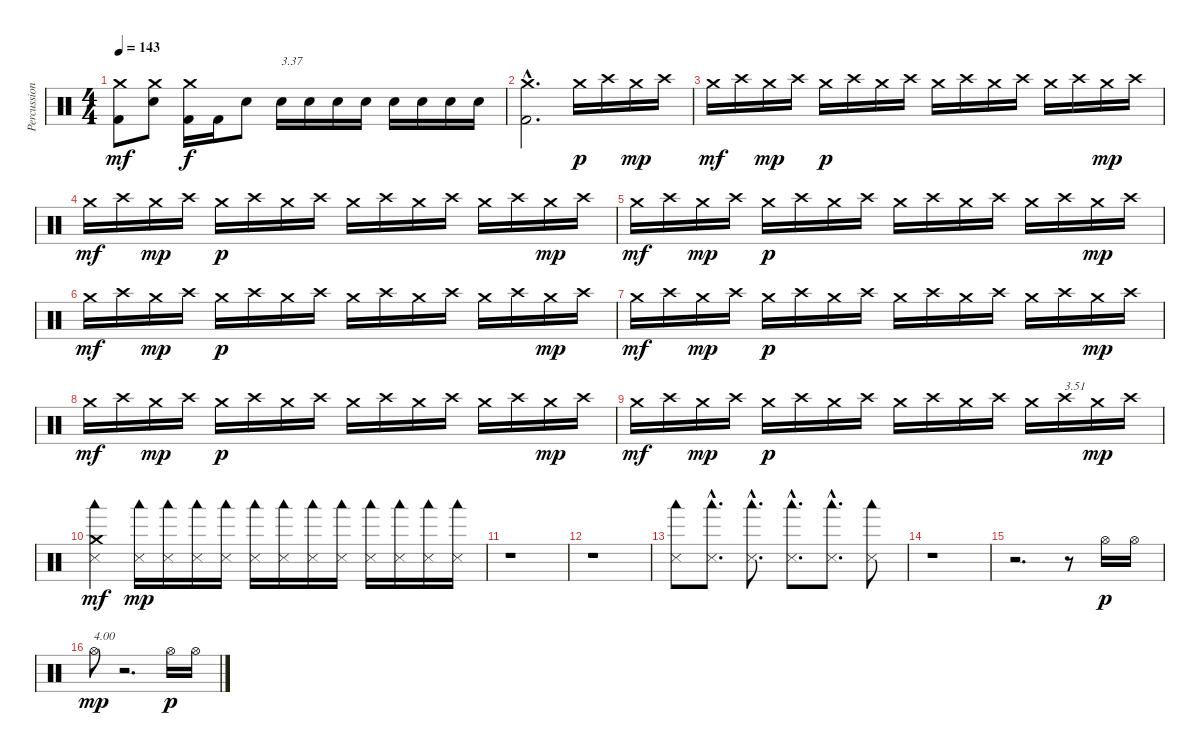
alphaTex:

\track ("Percussions" "Percussion") {instrument percussion}
\staff {score}
\articulation defaults
\ts (4 4)
\tempo 143
\clef neutral
\ks c
("Kick (hit) 2" "Crash medium (hit)").8{dy mf} ("Electric Snare (hit)" "Crash medium (hit)").8 ("Kick (hit) 2" "Crash medium (hit)").16{dy f} "Kick (hit) 2".16 "Electric Snare (hit)".8 "Electric Snare (hit)".16{txt "3.37"} "Electric Snare (hit)".16 "Electric Snare (hit)".16 "Electric Snare (hit)".16 "Electric Snare (hit)".16 "Electric Snare (hit)".16 "Electric Snare (hit)".16 "Electric Snare (hit)".16 |
("Kick (hit) 2"{hac} "Crash medium (hit)"{hac}).2{d} "Crash medium (hit)".16{dy p} "Crash high (hit)".16 "Crash medium (hit)".16{dy mp} "Crash high (hit)".16 |
"Crash medium (hit)".16{dy mf} "Crash high (hit)".16 "Crash medium (hit)".16{dy mp} "Crash high (hit)".16 "Crash medium (hit)".16{dy p} "Crash high (hit)".16 "Crash medium (hit)".16 "Crash high (hit)".16 "Crash medium (hit)".16 "Crash high (hit)".16 "Crash medium (hit)".16 "Crash high (hit)".16 "Crash medium (hit)".16 "Crash high (hit)".16 "Crash medium (hit)".16{dy mp} "Crash high (hit)".16 |
"Crash medium (hit)".16{dy mf} "Crash high (hit)".16 "Crash medium (hit)".16{dy mp} "Crash high (hit)".16 "Crash medium (hit)".16{dy p} "Crash high (hit)".16 "Crash medium (hit)".16 "Crash high (hit)".16 "Crash medium (hit)".16 "Crash high (hit)".16 "Crash medium (hit)".16 "Crash high (hit)".16 "Crash medium (hit)".16 "Crash high (hit)".16 "Crash medium (hit)".16{dy mp} "Crash high (hit)".16 |
"Crash medium (hit)".16{dy mf} "Crash high (hit)".16 "Crash medium (hit)".16{dy mp} "Crash high (hit)".16 "Crash medium (hit)".16{dy p} "Crash high (hit)".16 "Crash medium (hit)".16 "Crash high (hit)".16 "Crash medium (hit)".16 "Crash high (hit)".16 "Crash medium (hit)".16 "Crash high (hit)".16 "Crash medium (hit)".16 "Crash high (hit)".16 "Crash medium (hit)".16{dy mp} "Crash high (hit)".16 |
"Crash medium (hit)".16{dy mf} "Crash high (hit)".16 "Crash medium (hit)".16{dy mp} "Crash high (hit)".16 "Crash medium (hit)".16{dy p} "Crash high (hit)".16 "Crash medium (hit)".16 "Crash high (hit)".16 "Crash medium (hit)".16 "Crash high (hit)".16 "Crash medium (hit)".16 "Crash high (hit)".16 "Crash medium (hit)".16 "Crash high (hit)".16 "Crash medium (hit)".16{dy mp} "Crash high (hit)".16 |
"Crash medium (hit)".16{dy mf} "Crash high (hit)".16 "Crash medium (hit)".16{dy mp} "Crash high (hit)".16 "Crash medium (hit)".16{dy p} "Crash high (hit)".16 "Crash medium (hit)".16 "Crash high (hit)".16 "Crash medium (hit)".16 "Crash high (hit)".16 "Crash medium (hit)".16 "Crash high (hit)".16 "Crash medium (hit)".16 "Crash high (hit)".16 "Crash medium (hit)".16{dy mp} "Crash high (hit)".16 |
"Crash medium (hit)".16{dy mf} "Crash high (hit)".16 "Crash medium (hit)".16{dy mp} "Crash high (hit)".16 "Crash medium (hit)".16{dy p} "Crash high (hit)".16 "Crash medium (hit)".16 "Crash high (hit)".16 "Crash medium (hit)".16 "Crash high (hit)".16 "Crash medium (hit)".16 "Crash high (hit)".16 "Crash medium (hit)".16 "Crash high (hit)".16 "Crash medium (hit)".16{dy mp} "Crash high (hit)".16 |
"Crash medium (hit)".16{dy mf} "Crash high (hit)".16 "Crash medium (hit)".16{dy mp} "Crash high (hit)".16 "Crash medium (hit)".16{dy p} "Crash high (hit)".16 "Crash medium (hit)".16 "Crash high (hit)".16 "Crash medium (hit)".16 "Crash high (hit)".16 "Crash medium (hit)".16 "Crash high (hit)".16 "Crash medium (hit)".16 "Crash high (hit)".16{txt "3.51"} "Crash medium (hit)".16{dy mp} "Crash high (hit)".16 |
("Snare (side stick) 3" "Woodblock low (hit)" "Crash medium (hit)").4{dy mf} ("Snare (side stick) 3" "Woodblock low (hit)").16{dy mp} ("Snare (side stick) 3" "Woodblock low (hit)").16 ("Snare (side stick) 3" "Woodblock low (hit)").16 ("Snare (side stick) 3" "Woodblock low (hit)").16 ("Snare (side stick) 3" "Woodblock low (hit)").16 ("Snare (side stick) 3" "Woodblock low (hit)").16 ("Snare (side stick) 3" "Woodblock low (hit)").16 ("Snare (side stick) 3" "Woodblock low (hit)").16 ("Snare (side stick) 3" "Woodblock low (hit)").16 ("Snare (side stick) 3" "Woodblock low (hit)").16 ("Snare (side stick) 3" "Woodblock low (hit)").16 ("Snare (side stick) 3" "Woodblock low (hit)").16 |
r.1 |
r.1 |
("Snare (side stick) 3" "Woodblock low (hit)").8 ("Snare (side stick) 3"{hac} "Woodblock low (hit)"{hac}).8{d} ("Snare (side stick) 3"{hac} "Woodblock low (hit)"{hac}).8{d} ("Snare (side stick) 3"{hac} "Woodblock low (hit)"{hac}).8{d} ("Snare (side stick) 3"{hac} "Woodblock low (hit)"{hac}).8{d} ("Snare (side stick) 3" "Woodblock low (hit)").8 |
r.1 |
r.2{d} r.8 "Hi-Hat (open)".16{dy p} "Hi-Hat (open)".16 |
"Hi-Hat (open)".8{txt "4.00" dy mp} r.2{d} "Hi-Hat (open)".16{dy p} "Hi-Hat (open)".16
